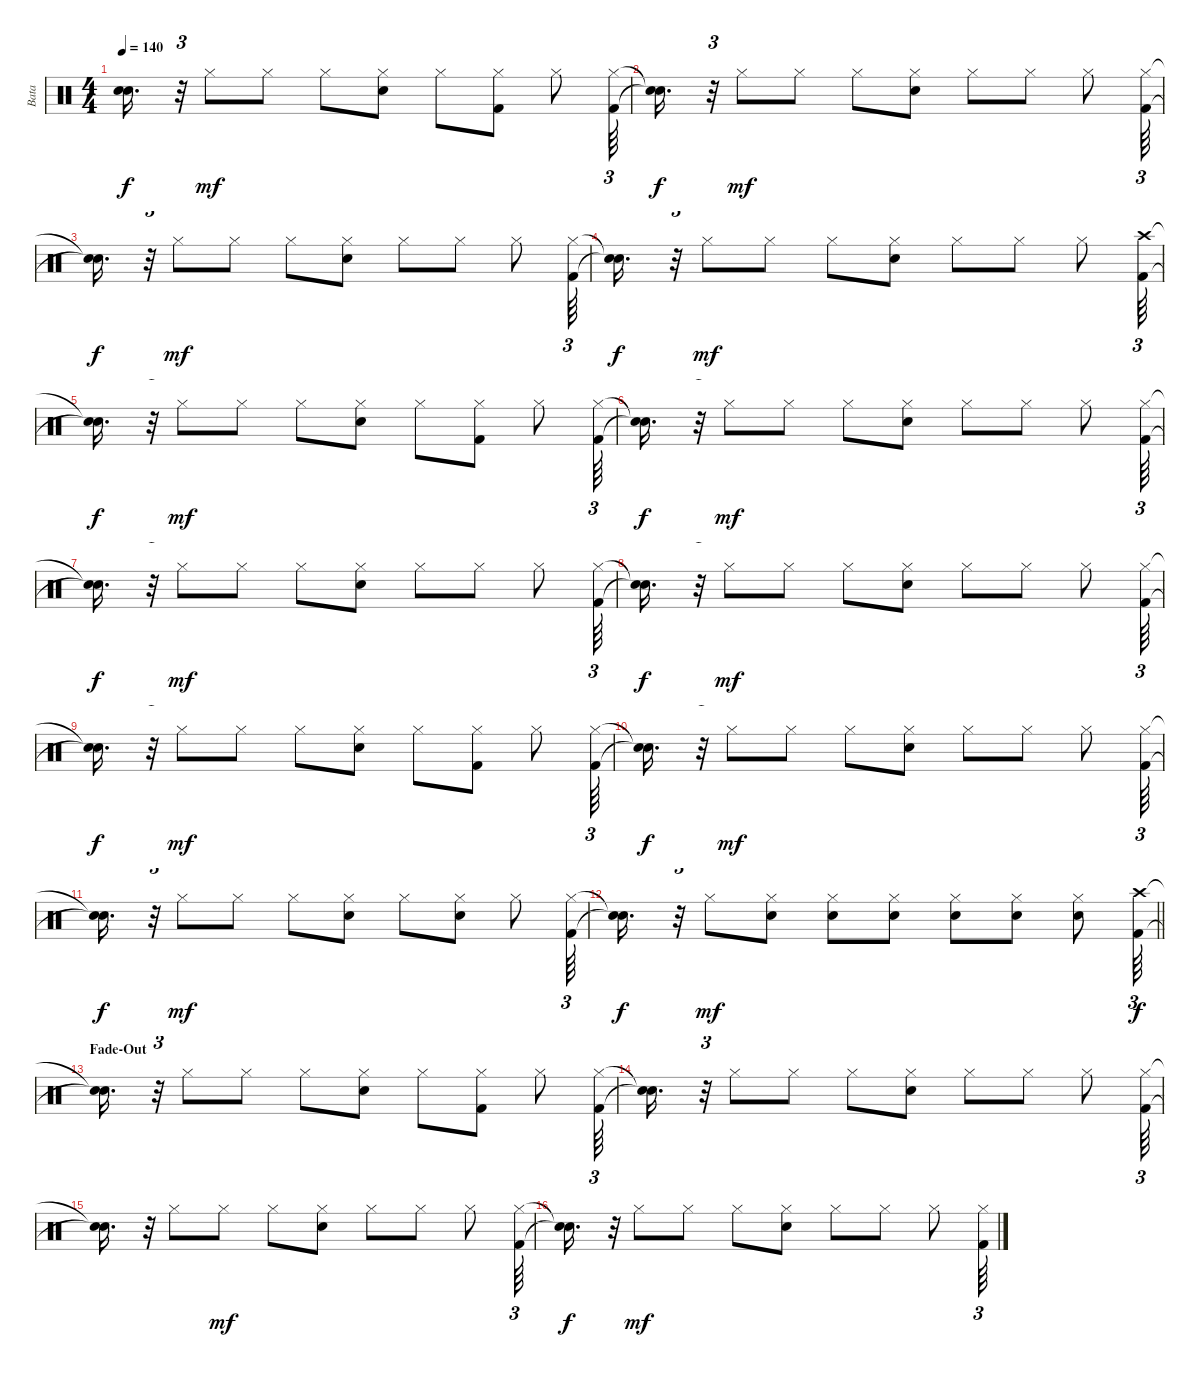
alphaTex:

\track ("Bata" "Bata") {instrument percussion}
\staff {score}
\articulation defaults
\ts (4 4)
\tempo 140
\clef neutral
\ks c
("Snare (hit)"{t} "Snare (hit)"{t}).16{d dy f} r.32{tu (3 2)} "Hi-Hat (closed)".8{dy mf} "Hi-Hat (closed)".8 "Hi-Hat (closed)".8 ("Hi-Hat (closed)" "Snare (hit) 2").8 "Hi-Hat (closed)".8 ("Kick (hit) 2" "Hi-Hat (closed)").8 "Hi-Hat (closed)".8 ("Hi-Hat (closed)" "Kick (hit) 2").64{tu (3 2)} |
("Snare (hit)"{t} "Snare (hit)"{t}).16{d dy f} r.32{tu (3 2)} "Hi-Hat (closed)".8{dy mf} "Hi-Hat (closed)".8 "Hi-Hat (closed)".8 ("Snare (hit) 2" "Hi-Hat (closed)").8 "Hi-Hat (closed)".8 "Hi-Hat (closed)".8 "Hi-Hat (closed)".8 ("Kick (hit) 2" "Hi-Hat (closed)").64{tu (3 2)} |
("Snare (hit)"{t} "Snare (hit)"{t}).16{d dy f} r.32{tu (3 2)} "Hi-Hat (closed)".8{dy mf} "Hi-Hat (closed)".8 "Hi-Hat (closed)".8 ("Hi-Hat (closed)" "Snare (hit) 2").8 "Hi-Hat (closed)".8 "Hi-Hat (closed)".8 "Hi-Hat (closed)".8 ("Kick (hit) 2" "Hi-Hat (closed)").64{tu (3 2)} |
("Snare (hit)"{t} "Snare (hit)"{t}).16{d dy f} r.32{tu (3 2)} "Hi-Hat (closed)".8{dy mf} "Hi-Hat (closed)".8 "Hi-Hat (closed)".8 ("Snare (hit) 2" "Hi-Hat (closed)").8 "Hi-Hat (closed)".8 "Hi-Hat (closed)".8 "Hi-Hat (closed)".8 ("Kick (hit) 2" "Crash high (hit)").64{tu (3 2)} |
("Snare (hit)"{t} "Snare (hit)"{t}).16{d dy f} r.32{tu (3 2)} "Hi-Hat (closed)".8{dy mf} "Hi-Hat (closed)".8 "Hi-Hat (closed)".8 ("Hi-Hat (closed)" "Snare (hit) 2").8 "Hi-Hat (closed)".8 ("Hi-Hat (closed)" "Kick (hit) 2").8 "Hi-Hat (closed)".8 ("Kick (hit) 2" "Hi-Hat (closed)").64{tu (3 2)} |
("Snare (hit)"{t} "Snare (hit)"{t}).16{d dy f} r.32{tu (3 2)} "Hi-Hat (closed)".8{dy mf} "Hi-Hat (closed)".8 "Hi-Hat (closed)".8 ("Hi-Hat (closed)" "Snare (hit) 2").8 "Hi-Hat (closed)".8 "Hi-Hat (closed)".8 "Hi-Hat (closed)".8 ("Kick (hit) 2" "Hi-Hat (closed)").64{tu (3 2)} |
("Snare (hit)"{t} "Snare (hit)"{t}).16{d dy f} r.32{tu (3 2)} "Hi-Hat (closed)".8{dy mf} "Hi-Hat (closed)".8 "Hi-Hat (closed)".8 ("Hi-Hat (closed)" "Snare (hit) 2").8 "Hi-Hat (closed)".8 "Hi-Hat (closed)".8 "Hi-Hat (closed)".8 ("Kick (hit) 2" "Hi-Hat (closed)").64{tu (3 2)} |
("Snare (hit)"{t} "Snare (hit)"{t}).16{d dy f} r.32{tu (3 2)} "Hi-Hat (closed)".8{dy mf} "Hi-Hat (closed)".8 "Hi-Hat (closed)".8 ("Hi-Hat (closed)" "Snare (hit) 2").8 "Hi-Hat (closed)".8 "Hi-Hat (closed)".8 "Hi-Hat (closed)".8 ("Kick (hit) 2" "Hi-Hat (closed)").64{tu (3 2)} |
("Snare (hit)"{t} "Snare (hit)"{t}).16{d dy f} r.32{tu (3 2)} "Hi-Hat (closed)".8{dy mf} "Hi-Hat (closed)".8 "Hi-Hat (closed)".8 ("Snare (hit) 2" "Hi-Hat (closed)").8 "Hi-Hat (closed)".8 ("Kick (hit) 2" "Hi-Hat (closed)").8 "Hi-Hat (closed)".8 ("Hi-Hat (closed)" "Kick (hit) 2").64{tu (3 2)} |
("Snare (hit)"{t} "Snare (hit)"{t}).16{d dy f} r.32{tu (3 2)} "Hi-Hat (closed)".8{dy mf} "Hi-Hat (closed)".8 "Hi-Hat (closed)".8 ("Hi-Hat (closed)" "Snare (hit) 2").8 "Hi-Hat (closed)".8 "Hi-Hat (closed)".8 "Hi-Hat (closed)".8 ("Kick (hit) 2" "Hi-Hat (closed)").64{tu (3 2)} |
("Snare (hit)"{t} "Snare (hit)"{t}).16{d dy f} r.32{tu (3 2)} "Hi-Hat (closed)".8{dy mf} "Hi-Hat (closed)".8 "Hi-Hat (closed)".8 ("Hi-Hat (closed)" "Snare (hit) 2").8 "Hi-Hat (closed)".8 ("Snare (hit) 2" "Hi-Hat (closed)").8 "Hi-Hat (closed)".8 ("Hi-Hat (closed)" "Kick (hit) 2").64{tu (3 2)} |
\barLineRight lightlight
("Snare (hit)"{t} "Snare (hit)"{t}).16{d dy f} r.32{tu (3 2)} "Hi-Hat (closed)".8{dy mf} ("Snare (hit) 2" "Hi-Hat (closed)").8 ("Hi-Hat (closed)" "Snare (hit) 2").8 ("Snare (hit) 2" "Hi-Hat (closed)").8 ("Snare (hit) 2" "Hi-Hat (closed)").8 ("Snare (hit) 2" "Hi-Hat (closed)").8 ("Snare (hit) 2" "Hi-Hat (closed)").8 ("Kick (hit) 2" "Crash high (hit)").64{tu (3 2) dy f} |
\section ("" "Fade-Out")
("Snare (hit)"{t} "Snare (hit)"{t}).16{d} r.32{tu (3 2)} "Hi-Hat (closed)".8 "Hi-Hat (closed)".8 "Hi-Hat (closed)".8 ("Hi-Hat (closed)" "Snare (hit) 2").8 "Hi-Hat (closed)".8 ("Hi-Hat (closed)" "Kick (hit) 2").8 "Hi-Hat (closed)".8 ("Kick (hit) 2" "Hi-Hat (closed)").64{tu (3 2)} |
("Snare (hit)"{t} "Snare (hit)"{t}).16{d} r.32{tu (3 2)} "Hi-Hat (closed)".8 "Hi-Hat (closed)".8 "Hi-Hat (closed)".8 ("Hi-Hat (closed)" "Snare (hit) 2").8 "Hi-Hat (closed)".8 "Hi-Hat (closed)".8 "Hi-Hat (closed)".8 ("Kick (hit) 2" "Hi-Hat (closed)").64{tu (3 2)} |
("Snare (hit)"{t} "Snare (hit)"{t}).16{d} r.32{tu (3 2)} "Hi-Hat (closed)".8 "Hi-Hat (closed)".8{dy mf} "Hi-Hat (closed)".8 ("Hi-Hat (closed)" "Snare (hit) 2").8 "Hi-Hat (closed)".8 "Hi-Hat (closed)".8 "Hi-Hat (closed)".8 ("Kick (hit) 2" "Hi-Hat (closed)").64{tu (3 2)} |
("Snare (hit)"{t} "Snare (hit)"{t}).16{d dy f} r.32{tu (3 2)} "Hi-Hat (closed)".8{dy mf} "Hi-Hat (closed)".8 "Hi-Hat (closed)".8 ("Hi-Hat (closed)" "Snare (hit) 2").8 "Hi-Hat (closed)".8 "Hi-Hat (closed)".8 "Hi-Hat (closed)".8 ("Kick (hit) 2" "Hi-Hat (closed)").64{tu (3 2)}
